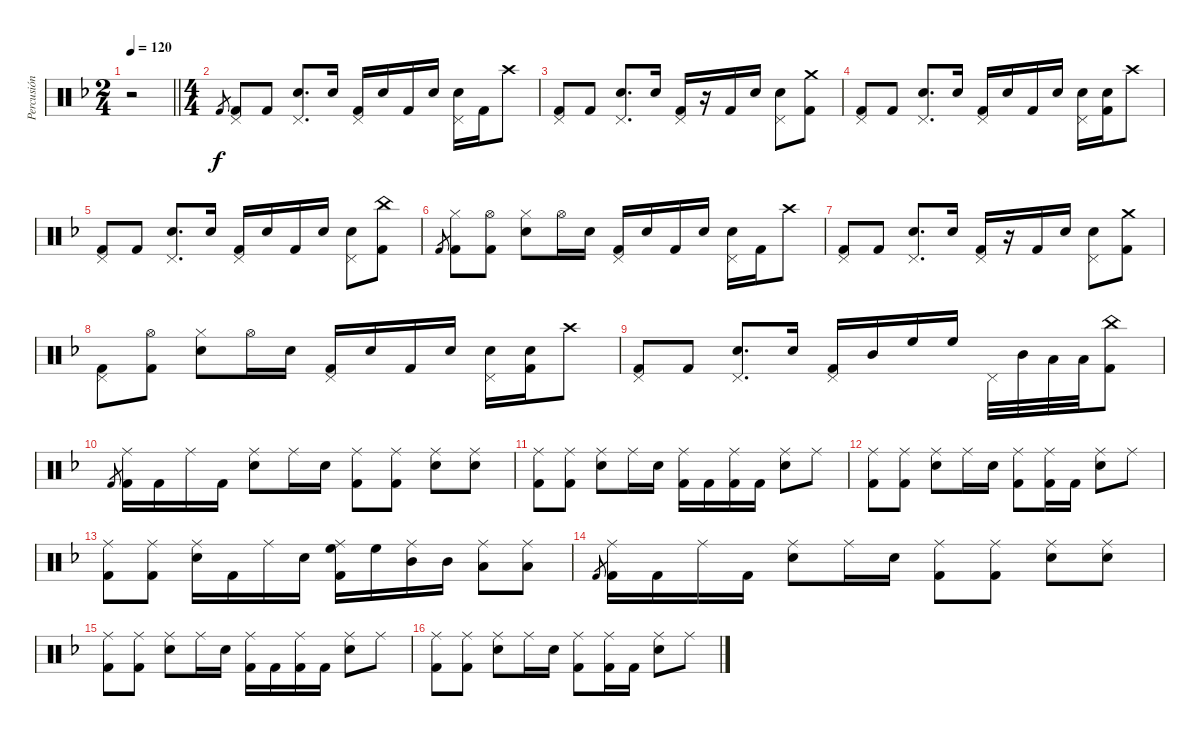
\track ("Percusión" "Percusión") {instrument percussion}
\staff {score}
\articulation defaults
\ts (2 4)
\tempo 120
\clef neutral
\barLineRight lightlight
\ks dminor
r.2{dy f} |
\ts (4 4)
"Kick (hit) 2".8{gr} ("Pedal Hi-Hat (hit)" "Kick (hit) 2").8{volume 9} "Kick (hit) 2".8 ("Pedal Hi-Hat (hit)" "Snare (hit) 2").8{d} "Snare (hit) 2".16 ("Pedal Hi-Hat (hit)" "Kick (hit) 2").16 "Snare (hit) 2".16 "Kick (hit) 2".16 "Snare (hit) 2".16 ("Pedal Hi-Hat (hit)" "Snare (hit) 2").16 "Kick (hit) 2".16 "Crash high (hit)".8 |
("Pedal Hi-Hat (hit)" "Kick (hit) 2").8 "Kick (hit) 2".8 ("Pedal Hi-Hat (hit)" "Snare (hit) 2").8{d} "Snare (hit) 2".16 ("Pedal Hi-Hat (hit)" "Kick (hit) 2").16 r.16 "Kick (hit) 2".16 "Snare (hit) 2".16 ("Pedal Hi-Hat (hit)" "Snare (hit) 2").8 ("Crash medium (hit)" "Kick (hit) 2").8 |
("Pedal Hi-Hat (hit)" "Kick (hit) 2").8 "Kick (hit) 2".8 ("Pedal Hi-Hat (hit)" "Snare (hit) 2").8{d} "Snare (hit) 2".16 ("Pedal Hi-Hat (hit)" "Kick (hit) 2").16 "Snare (hit) 2".16 "Kick (hit) 2".16 "Snare (hit) 2".16 ("Pedal Hi-Hat (hit)" "Snare (hit) 2").16 ("Snare (hit) 2" "Kick (hit) 2").16 "Crash high (hit)".8 |
("Pedal Hi-Hat (hit)" "Kick (hit) 2").8 "Kick (hit) 2".8 ("Pedal Hi-Hat (hit)" "Snare (hit) 2").8{d} "Snare (hit) 2".16 ("Pedal Hi-Hat (hit)" "Kick (hit) 2").16 "Snare (hit) 2".16 "Kick (hit) 2".16 "Snare (hit) 2".16 ("Pedal Hi-Hat (hit)" "Snare (hit) 2").8 ("China (hit)" "Kick (hit) 2").8 |
"Kick (hit) 2".8{gr} ("Hi-Hat (closed)" "Kick (hit) 2").8 ("Hi-Hat (open)" "Kick (hit) 2").8 ("Hi-Hat (closed)" "Snare (hit) 2").8 "Hi-Hat (open)".16 "Snare (hit) 2".16 ("Pedal Hi-Hat (hit)" "Kick (hit) 2").16 "Snare (hit) 2".16 "Kick (hit) 2".16 "Snare (hit) 2".16 ("Pedal Hi-Hat (hit)" "Snare (hit) 2").16 "Kick (hit) 2".16 "Crash high (hit)".8 |
("Pedal Hi-Hat (hit)" "Kick (hit) 2").8 "Kick (hit) 2".8 ("Pedal Hi-Hat (hit)" "Snare (hit) 2").8{d} "Snare (hit) 2".16 ("Pedal Hi-Hat (hit)" "Kick (hit) 2").16 r.16 "Kick (hit) 2".16 "Snare (hit) 2".16 ("Pedal Hi-Hat (hit)" "Snare (hit) 2").8 ("Crash medium (hit)" "Kick (hit) 2").8 |
("Pedal Hi-Hat (hit)" "Kick (hit) 2").8 ("Hi-Hat (open)" "Kick (hit) 2").8 ("Hi-Hat (closed)" "Snare (hit) 2").8 "Hi-Hat (open)".16 "Snare (hit) 2".16 ("Pedal Hi-Hat (hit)" "Kick (hit) 2").16 "Snare (hit) 2".16 "Kick (hit) 2".16 "Snare (hit) 2".16 ("Pedal Hi-Hat (hit)" "Snare (hit) 2").16 ("Snare (hit) 2" "Kick (hit) 2").16 "Crash high (hit)".8 |
("Pedal Hi-Hat (hit)" "Kick (hit) 2").8 "Kick (hit) 2".8 ("Pedal Hi-Hat (hit)" "Snare (hit) 2").8{d} "Snare (hit) 2".16 ("Pedal Hi-Hat (hit)" "Kick (hit) 2").16 "Mid Tom (hit)".16 "High Floor Tom (hit)".16 "High Floor Tom (hit)".16 "Pedal Hi-Hat (hit)".32 "Mid Tom (hit)".32 "Low Tom (hit)".32 "Low Tom (hit)".32 ("China (hit)" "Kick (hit) 2").8 |
"Kick (hit) 2".8{gr} ("Ride (middle)" "Kick (hit) 2").16 "Kick (hit) 2".16 "Ride (middle)".16 "Kick (hit) 2".16 ("Ride (middle)" "Snare (hit) 2").8 "Ride (middle)".16 "Snare (hit) 2".16 ("Ride (middle)" "Kick (hit) 2").8 ("Ride (middle)" "Kick (hit) 2").8 ("Ride (middle)" "Snare (hit) 2").8 ("Ride (middle)" "Snare (hit) 2").8 |
("Ride (middle)" "Kick (hit) 2").8 ("Ride (middle)" "Kick (hit) 2").8 ("Ride (middle)" "Snare (hit) 2").8 "Ride (middle)".16 "Snare (hit) 2".16 ("Ride (middle)" "Kick (hit) 2").16 "Kick (hit) 2".16 ("Ride (middle)" "Kick (hit) 2").16 "Kick (hit) 2".16 ("Ride (middle)" "Snare (hit) 2").8 "Ride (middle)".8 |
("Ride (middle)" "Kick (hit) 2").8 ("Ride (middle)" "Kick (hit) 2").8 ("Ride (middle)" "Snare (hit) 2").8 "Ride (middle)".16 "Snare (hit) 2".16 ("Ride (middle)" "Kick (hit) 2").8 ("Ride (middle)" "Kick (hit) 2").16 "Kick (hit) 2".16 ("Ride (middle)" "Snare (hit) 2").8 "Ride (middle)".8 |
("Ride (middle)" "Kick (hit) 2").8 ("Ride (middle)" "Kick (hit) 2").8 ("Ride (middle)" "Snare (hit) 2").16 "Kick (hit) 2".16 "Ride (middle)".16 "Snare (hit) 2".16 ("Ride (middle)" "High Floor Tom (hit)" "Kick (hit) 2").16 "High Floor Tom (hit)".16 ("Ride (middle)" "Mid Tom (hit)").16 "Mid Tom (hit)".16 ("Ride (middle)" "Low Tom (hit)").8 ("Ride (middle)" "Low Floor Tom (hit)").8 |
"Kick (hit) 2".8{gr} ("Ride (middle)" "Kick (hit) 2").16 "Kick (hit) 2".16 "Ride (middle)".16 "Kick (hit) 2".16 ("Ride (middle)" "Snare (hit) 2").8 "Ride (middle)".16 "Snare (hit) 2".16 ("Ride (middle)" "Kick (hit) 2").8 ("Ride (middle)" "Kick (hit) 2").8 ("Ride (middle)" "Snare (hit) 2").8 ("Ride (middle)" "Snare (hit) 2").8 |
("Ride (middle)" "Kick (hit) 2").8 ("Ride (middle)" "Kick (hit) 2").8 ("Ride (middle)" "Snare (hit) 2").8 "Ride (middle)".16 "Snare (hit) 2".16 ("Ride (middle)" "Kick (hit) 2").16 "Kick (hit) 2".16 ("Ride (middle)" "Kick (hit) 2").16 "Kick (hit) 2".16 ("Ride (middle)" "Snare (hit) 2").8 "Ride (middle)".8 |
("Ride (middle)" "Kick (hit) 2").8 ("Ride (middle)" "Kick (hit) 2").8 ("Ride (middle)" "Snare (hit) 2").8 "Ride (middle)".16 "Snare (hit) 2".16 ("Ride (middle)" "Kick (hit) 2").8 ("Ride (middle)" "Kick (hit) 2").16 "Kick (hit) 2".16 ("Ride (middle)" "Snare (hit) 2").8 "Ride (middle)".8
